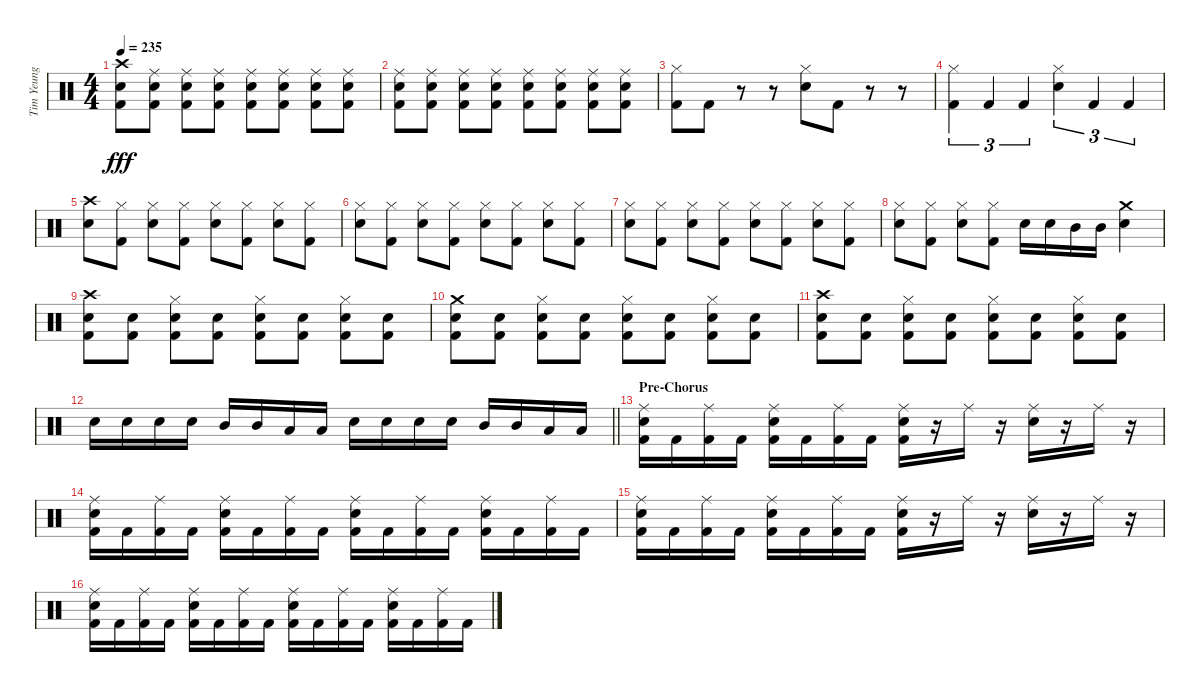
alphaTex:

\track ("Tim Yeung" "Tim Yeung") {instrument percussion}
\staff {score}
\articulation defaults
\ts (4 4)
\tempo 235
\clef neutral
\ks c
("Crash high (hit)" "Electric Snare (hit)" "Kick (hit) 2").8{dy fff} ("Ride (middle)" "Electric Snare (hit)" "Kick (hit) 2").8 ("Ride (middle)" "Electric Snare (hit)" "Kick (hit) 2").8 ("Ride (middle)" "Electric Snare (hit)" "Kick (hit) 2").8 ("Ride (middle)" "Electric Snare (hit)" "Kick (hit) 2").8 ("Ride (middle)" "Electric Snare (hit)" "Kick (hit) 2").8 ("Ride (middle)" "Electric Snare (hit)" "Kick (hit) 2").8 ("Ride (middle)" "Electric Snare (hit)" "Kick (hit) 2").8 |
("Ride (middle)" "Electric Snare (hit)" "Kick (hit) 2").8 ("Ride (middle)" "Electric Snare (hit)" "Kick (hit) 2").8 ("Ride (middle)" "Electric Snare (hit)" "Kick (hit) 2").8 ("Ride (middle)" "Electric Snare (hit)" "Kick (hit) 2").8 ("Ride (middle)" "Electric Snare (hit)" "Kick (hit) 2").8 ("Ride (middle)" "Electric Snare (hit)" "Kick (hit) 2").8 ("Ride (middle)" "Electric Snare (hit)" "Kick (hit) 2").8 ("Ride (middle)" "Electric Snare (hit)" "Kick (hit) 2").8 |
("Hi-Hat (closed)" "Kick (hit) 2").8 "Kick (hit) 2".8 r.8 r.8 ("Hi-Hat (closed)" "Electric Snare (hit)").8 "Kick (hit) 2".8 r.8 r.8 |
("Hi-Hat (closed)" "Kick (hit) 2").4{tu (3 2)} "Kick (hit) 2".4{tu (3 2)} "Kick (hit) 2".4{tu (3 2)} ("Hi-Hat (closed)" "Electric Snare (hit)").4{tu (3 2)} "Kick (hit) 2".4{tu (3 2)} "Kick (hit) 2".4{tu (3 2)} |
("Crash high (hit)" "Electric Snare (hit)").8 ("Hi-Hat (closed)" "Kick (hit) 2").8 ("Hi-Hat (closed)" "Electric Snare (hit)").8 ("Hi-Hat (closed)" "Kick (hit) 2").8 ("Hi-Hat (closed)" "Electric Snare (hit)").8 ("Hi-Hat (closed)" "Kick (hit) 2").8 ("Hi-Hat (closed)" "Electric Snare (hit)").8 ("Hi-Hat (closed)" "Kick (hit) 2").8 |
("Hi-Hat (closed)" "Electric Snare (hit)").8 ("Hi-Hat (closed)" "Kick (hit) 2").8 ("Hi-Hat (closed)" "Electric Snare (hit)").8 ("Hi-Hat (closed)" "Kick (hit) 2").8 ("Hi-Hat (closed)" "Electric Snare (hit)").8 ("Hi-Hat (closed)" "Kick (hit) 2").8 ("Hi-Hat (closed)" "Electric Snare (hit)").8 ("Hi-Hat (closed)" "Kick (hit) 2").8 |
("Hi-Hat (closed)" "Electric Snare (hit)").8 ("Hi-Hat (closed)" "Kick (hit) 2").8 ("Hi-Hat (closed)" "Electric Snare (hit)").8 ("Hi-Hat (closed)" "Kick (hit) 2").8 ("Hi-Hat (closed)" "Electric Snare (hit)").8 ("Hi-Hat (closed)" "Kick (hit) 2").8 ("Hi-Hat (closed)" "Electric Snare (hit)").8 ("Hi-Hat (closed)" "Kick (hit) 2").8 |
("Hi-Hat (closed)" "Electric Snare (hit)").8 ("Hi-Hat (closed)" "Kick (hit) 2").8 ("Hi-Hat (closed)" "Electric Snare (hit)").8 ("Hi-Hat (closed)" "Kick (hit) 2").8 "Electric Snare (hit)".16 "Electric Snare (hit)".16 "Mid Tom (hit)".16 "Mid Tom (hit)".16 ("Crash medium (hit)" "Electric Snare (hit)").4 |
("Crash high (hit)" "Electric Snare (hit)" "Kick (hit) 2").8 ("Electric Snare (hit)" "Kick (hit) 2").8 ("Hi-Hat (closed)" "Electric Snare (hit)" "Kick (hit) 2").8 ("Electric Snare (hit)" "Kick (hit) 2").8 ("Hi-Hat (closed)" "Electric Snare (hit)" "Kick (hit) 2").8 ("Electric Snare (hit)" "Kick (hit) 2").8 ("Hi-Hat (closed)" "Electric Snare (hit)" "Kick (hit) 2").8 ("Electric Snare (hit)" "Kick (hit) 2").8 |
("Crash medium (hit)" "Electric Snare (hit)" "Kick (hit) 2").8 ("Electric Snare (hit)" "Kick (hit) 2").8 ("Hi-Hat (closed)" "Electric Snare (hit)" "Kick (hit) 2").8 ("Electric Snare (hit)" "Kick (hit) 2").8 ("Hi-Hat (closed)" "Electric Snare (hit)" "Kick (hit) 2").8 ("Electric Snare (hit)" "Kick (hit) 2").8 ("Hi-Hat (closed)" "Electric Snare (hit)" "Kick (hit) 2").8 ("Electric Snare (hit)" "Kick (hit) 2").8 |
("Crash high (hit)" "Electric Snare (hit)" "Kick (hit) 2").8 ("Electric Snare (hit)" "Kick (hit) 2").8 ("Hi-Hat (closed)" "Electric Snare (hit)" "Kick (hit) 2").8 ("Electric Snare (hit)" "Kick (hit) 2").8 ("Hi-Hat (closed)" "Electric Snare (hit)" "Kick (hit) 2").8 ("Electric Snare (hit)" "Kick (hit) 2").8 ("Hi-Hat (closed)" "Electric Snare (hit)" "Kick (hit) 2").8 ("Electric Snare (hit)" "Kick (hit) 2").8 |
\barLineRight lightlight "Electric Snare (hit)".16 "Electric Snare (hit)".16 "Electric Snare (hit)".16 "Electric Snare (hit)".16 "Mid Tom (hit)".16 "Mid Tom (hit)".16 "Low Tom (hit)".16 "Low Tom (hit)".16 "Electric Snare (hit)".16 "Electric Snare (hit)".16 "Electric Snare (hit)".16 "Electric Snare (hit)".16 "Mid Tom (hit)".16 "Mid Tom (hit)".16 "Low Tom (hit)".16 "Low Tom (hit)".16
|
\section ("" "Pre-Chorus")
("Ride (middle)" "Electric Snare (hit)" "Kick (hit) 2").16 "Kick (hit) 2".16 ("Ride (middle)" "Kick (hit) 2").16 "Kick (hit) 2".16 ("Ride (middle)" "Electric Snare (hit)" "Kick (hit) 2").16 "Kick (hit) 2".16 ("Ride (middle)" "Kick (hit) 2").16 "Kick (hit) 2".16 ("Ride (middle)" "Electric Snare (hit)" "Kick (hit) 2").16 r.16 "Ride (middle)".16 r.16 ("Ride (middle)" "Electric Snare (hit)").16 r.16 "Ride (middle)".16 r.16 |
("Ride (middle)" "Electric Snare (hit)" "Kick (hit) 2").16 "Kick (hit) 2".16 ("Ride (middle)" "Kick (hit) 2").16 "Kick (hit) 2".16 ("Ride (middle)" "Electric Snare (hit)" "Kick (hit) 2").16 "Kick (hit) 2".16 ("Ride (middle)" "Kick (hit) 2").16 "Kick (hit) 2".16 ("Ride (middle)" "Electric Snare (hit)" "Kick (hit) 2").16 "Kick (hit) 2".16 ("Ride (middle)" "Kick (hit) 2").16 "Kick (hit) 2".16 ("Ride (middle)" "Electric Snare (hit)" "Kick (hit) 2").16 "Kick (hit) 2".16 ("Ride (middle)" "Kick (hit) 2").16 "Kick (hit) 2".16 |
("Ride (middle)" "Electric Snare (hit)" "Kick (hit) 2").16 "Kick (hit) 2".16 ("Ride (middle)" "Kick (hit) 2").16 "Kick (hit) 2".16 ("Ride (middle)" "Electric Snare (hit)" "Kick (hit) 2").16 "Kick (hit) 2".16 ("Ride (middle)" "Kick (hit) 2").16 "Kick (hit) 2".16 ("Ride (middle)" "Electric Snare (hit)" "Kick (hit) 2").16 r.16 "Ride (middle)".16 r.16 ("Ride (middle)" "Electric Snare (hit)").16 r.16 "Ride (middle)".16 r.16 |
("Ride (middle)" "Electric Snare (hit)" "Kick (hit) 2").16 "Kick (hit) 2".16 ("Ride (middle)" "Kick (hit) 2").16 "Kick (hit) 2".16 ("Ride (middle)" "Electric Snare (hit)" "Kick (hit) 2").16 "Kick (hit) 2".16 ("Ride (middle)" "Kick (hit) 2").16 "Kick (hit) 2".16 ("Ride (middle)" "Electric Snare (hit)" "Kick (hit) 2").16 "Kick (hit) 2".16 ("Ride (middle)" "Kick (hit) 2").16 "Kick (hit) 2".16 ("Ride (middle)" "Electric Snare (hit)" "Kick (hit) 2").16 "Kick (hit) 2".16 ("Ride (middle)" "Kick (hit) 2").16 "Kick (hit) 2".16
